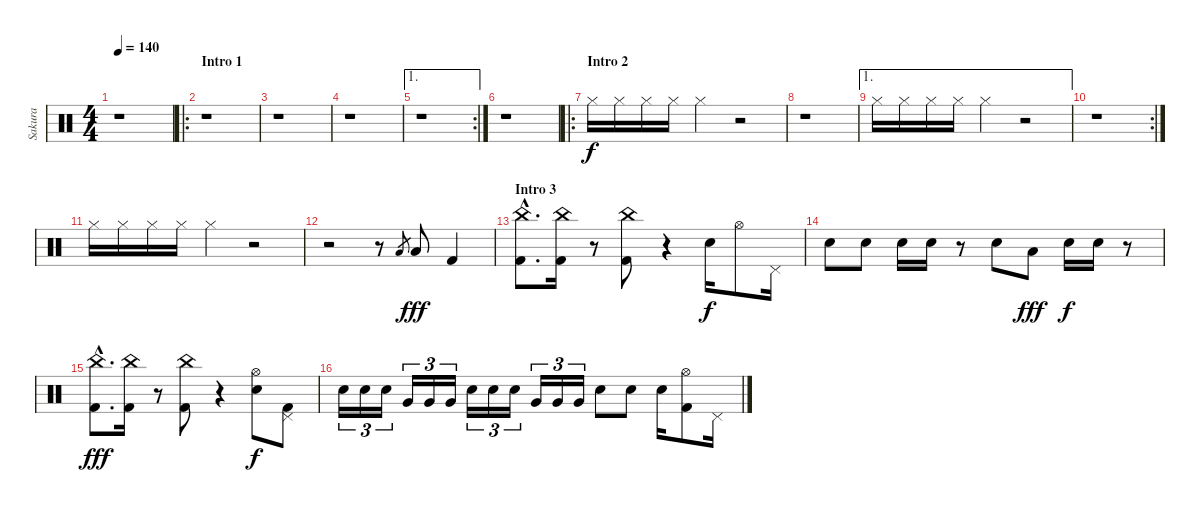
\track ("Sakura" "Sakura") {instrument percussion}
\staff {score}
\articulation defaults
\ts (4 4)
\tempo 140
\clef neutral
\ks c
r.1{dy f} |
\ro
\section ("" "Intro 1")
r.1 |
r.1 |
r.1 |
\ae 1
\rc 2
r.1 |
r.1 |
\ro
\section ("" "Intro 2")
"Hi-Hat (closed)".16 "Hi-Hat (closed)".16 "Hi-Hat (closed)".16 "Hi-Hat (closed)".16 "Hi-Hat (closed)".4 r.2 |
r.1 |
\ae 1 "Hi-Hat (closed)".16 "Hi-Hat (closed)".16 "Hi-Hat (closed)".16 "Hi-Hat (closed)".16 "Hi-Hat (closed)".4
r.2 |
\rc 2
r.1 |
"Hi-Hat (closed)".16 "Hi-Hat (closed)".16 "Hi-Hat (closed)".16 "Hi-Hat (closed)".16 "Hi-Hat (closed)".4 r.2 |
r.2 r.8 "Low Tom (hit)".8{gr} "Low Tom (hit)".8{dy fff} "Kick (hit) 2".4 |
\section ("" "Intro 3")
("China (hit)"{hac} "Kick (hit) 2"{hac}).8{d} ("China (hit)" "Kick (hit) 2").16 r.8 ("China (hit)" "Kick (hit) 2").8 r.4 "Electric Snare (hit)".16{dy f} "Hi-Hat (open)".8 "Pedal Hi-Hat (hit)".16 |
"Electric Snare (hit)".8 "Electric Snare (hit)".8 "Electric Snare (hit)".16 "Electric Snare (hit)".16 r.8 "Electric Snare (hit)".8 "Low Tom (hit)".8{dy fff} "Electric Snare (hit)".16{dy f} "Electric Snare (hit)".16 r.8 |
("China (hit)"{hac} "Kick (hit) 2"{hac}).8{d dy fff} ("China (hit)" "Kick (hit) 2").16 r.8 ("China (hit)" "Kick (hit) 2").8 r.4 ("Hi-Hat (open)" "Electric Snare (hit)").8{dy f} ("Pedal Hi-Hat (hit)" "Kick (hit) 2").8 |
"Electric Snare (hit)".16{tu (3 2)} "Electric Snare (hit)".16{tu (3 2)} "Electric Snare (hit)".16{tu (3 2)} "Very Low Tom (hit)".16{tu (3 2)} "Very Low Tom (hit)".16{tu (3 2)} "Very Low Tom (hit)".16{tu (3 2)} "Electric Snare (hit)".16{tu (3 2)} "Electric Snare (hit)".16{tu (3 2)} "Electric Snare (hit)".16{tu (3 2)} "Very Low Tom (hit)".16{tu (3 2)} "Very Low Tom (hit)".16{tu (3 2)} "Very Low Tom (hit)".16{tu (3 2)} "Electric Snare (hit)".8 "Electric Snare (hit)".8 "Electric Snare (hit)".16 ("Hi-Hat (open)" "Kick (hit) 2").8 "Pedal Hi-Hat (hit)".16
